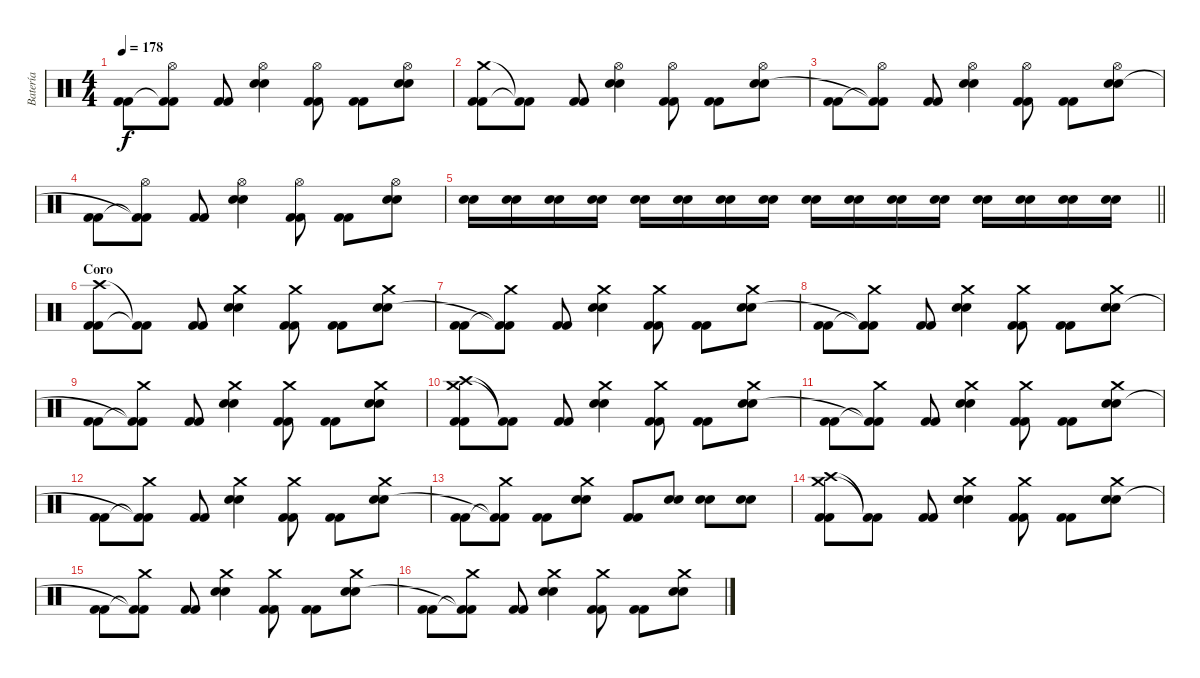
\track ("Batería" "Batería") {instrument percussion}
\staff {score}
\articulation defaults
\ts (4 4)
\tempo 178
\clef neutral
\ks c
("Kick (hit) 2" "Kick (hit) 2").8{dy f} ("Hi-Hat (open)" "Kick (hit) 2"{t} "Kick (hit) 2"{t}).8 ("Kick (hit) 2" "Kick (hit) 2").8 ("Hi-Hat (open)" "Electric Snare (hit)" "Electric Snare (hit)").4 ("Hi-Hat (open)" "Kick (hit) 2" "Kick (hit) 2").8 ("Kick (hit) 2" "Kick (hit) 2").8 ("Hi-Hat (open)" "Electric Snare (hit)" "Electric Snare (hit)").8 |
("Crash medium (hit)" "Kick (hit) 2" "Kick (hit) 2").8 ("Kick (hit) 2"{t} "Kick (hit) 2"{t}).8 ("Kick (hit) 2" "Kick (hit) 2").8 ("Hi-Hat (open)" "Electric Snare (hit)" "Electric Snare (hit)").4 ("Hi-Hat (open)" "Kick (hit) 2" "Kick (hit) 2").8 ("Kick (hit) 2" "Kick (hit) 2").8 ("Hi-Hat (open)" "Electric Snare (hit)" "Electric Snare (hit)").8 |
("Kick (hit) 2" "Kick (hit) 2").8 ("Hi-Hat (open)" "Kick (hit) 2"{t} "Kick (hit) 2"{t}).8 ("Kick (hit) 2" "Kick (hit) 2").8 ("Hi-Hat (open)" "Electric Snare (hit)" "Electric Snare (hit)").4 ("Hi-Hat (open)" "Kick (hit) 2" "Kick (hit) 2").8 ("Kick (hit) 2" "Kick (hit) 2").8 ("Hi-Hat (open)" "Electric Snare (hit)" "Electric Snare (hit)").8 |
("Kick (hit) 2" "Kick (hit) 2").8 ("Hi-Hat (open)" "Kick (hit) 2"{t} "Kick (hit) 2"{t}).8 ("Kick (hit) 2" "Kick (hit) 2").8 ("Hi-Hat (open)" "Electric Snare (hit)" "Electric Snare (hit)").4 ("Hi-Hat (open)" "Kick (hit) 2" "Kick (hit) 2").8 ("Kick (hit) 2" "Kick (hit) 2").8 ("Hi-Hat (open)" "Electric Snare (hit)" "Electric Snare (hit)").8 |
\barLineRight lightlight
("Electric Snare (hit)" "Electric Snare (hit)").16 ("Electric Snare (hit)" "Electric Snare (hit)").16 ("Electric Snare (hit)" "Electric Snare (hit)").16 ("Electric Snare (hit)" "Electric Snare (hit)").16 ("Electric Snare (hit)" "Electric Snare (hit)").16 ("Electric Snare (hit)" "Electric Snare (hit)").16 ("Electric Snare (hit)" "Electric Snare (hit)").16 ("Electric Snare (hit)" "Electric Snare (hit)").16 ("Electric Snare (hit)" "Electric Snare (hit)").16 ("Electric Snare (hit)" "Electric Snare (hit)").16 ("Electric Snare (hit)" "Electric Snare (hit)").16 ("Electric Snare (hit)" "Electric Snare (hit)").16 ("Electric Snare (hit)" "Electric Snare (hit)").16 ("Electric Snare (hit)" "Electric Snare (hit)").16 ("Electric Snare (hit)" "Electric Snare (hit)").16 ("Electric Snare (hit)" "Electric Snare (hit)").16 |
\section ("" "Coro")
("Crash high (hit)" "Kick (hit) 2" "Kick (hit) 2").8 ("Kick (hit) 2"{t} "Kick (hit) 2"{t}).8 ("Kick (hit) 2" "Kick (hit) 2").8 ("Crash medium (hit)" "Electric Snare (hit)" "Electric Snare (hit)").4 ("Crash medium (hit)" "Kick (hit) 2" "Kick (hit) 2").8 ("Kick (hit) 2" "Kick (hit) 2").8 ("Crash medium (hit)" "Electric Snare (hit)" "Electric Snare (hit)").8 |
("Kick (hit) 2" "Kick (hit) 2").8 ("Crash medium (hit)" "Kick (hit) 2"{t} "Kick (hit) 2"{t}).8 ("Kick (hit) 2" "Kick (hit) 2").8 ("Crash medium (hit)" "Electric Snare (hit)" "Electric Snare (hit)").4 ("Crash medium (hit)" "Kick (hit) 2" "Kick (hit) 2").8 ("Kick (hit) 2" "Kick (hit) 2").8 ("Crash medium (hit)" "Electric Snare (hit)" "Electric Snare (hit)").8 |
("Kick (hit) 2" "Kick (hit) 2").8 ("Crash medium (hit)" "Kick (hit) 2"{t} "Kick (hit) 2"{t}).8 ("Kick (hit) 2" "Kick (hit) 2").8 ("Crash medium (hit)" "Electric Snare (hit)" "Electric Snare (hit)").4 ("Crash medium (hit)" "Kick (hit) 2" "Kick (hit) 2").8 ("Kick (hit) 2" "Kick (hit) 2").8 ("Crash medium (hit)" "Electric Snare (hit)" "Electric Snare (hit)").8 |
("Kick (hit) 2" "Kick (hit) 2").8 ("Crash medium (hit)" "Kick (hit) 2"{t} "Kick (hit) 2"{t}).8 ("Kick (hit) 2" "Kick (hit) 2").8 ("Crash medium (hit)" "Electric Snare (hit)" "Electric Snare (hit)").4 ("Crash medium (hit)" "Kick (hit) 2" "Kick (hit) 2").8 ("Kick (hit) 2" "Kick (hit) 2").8 ("Crash medium (hit)" "Electric Snare (hit)" "Electric Snare (hit)").8 |
("Crash medium (hit)" "Crash high (hit)" "Kick (hit) 2" "Kick (hit) 2").8 ("Kick (hit) 2"{t} "Kick (hit) 2"{t}).8 ("Kick (hit) 2" "Kick (hit) 2").8 ("Crash medium (hit)" "Electric Snare (hit)" "Electric Snare (hit)").4 ("Crash medium (hit)" "Kick (hit) 2" "Kick (hit) 2").8 ("Kick (hit) 2" "Kick (hit) 2").8 ("Crash medium (hit)" "Electric Snare (hit)" "Electric Snare (hit)").8 |
("Kick (hit) 2" "Kick (hit) 2").8 ("Crash medium (hit)" "Kick (hit) 2"{t} "Kick (hit) 2"{t}).8 ("Kick (hit) 2" "Kick (hit) 2").8 ("Crash medium (hit)" "Electric Snare (hit)" "Electric Snare (hit)").4 ("Crash medium (hit)" "Kick (hit) 2" "Kick (hit) 2").8 ("Kick (hit) 2" "Kick (hit) 2").8 ("Crash medium (hit)" "Electric Snare (hit)" "Electric Snare (hit)").8 |
("Kick (hit) 2" "Kick (hit) 2").8 ("Crash medium (hit)" "Kick (hit) 2"{t} "Kick (hit) 2"{t}).8 ("Kick (hit) 2" "Kick (hit) 2").8 ("Crash medium (hit)" "Electric Snare (hit)" "Electric Snare (hit)").4 ("Crash medium (hit)" "Kick (hit) 2" "Kick (hit) 2").8 ("Kick (hit) 2" "Kick (hit) 2").8 ("Crash medium (hit)" "Electric Snare (hit)" "Electric Snare (hit)").8 |
("Kick (hit) 2" "Kick (hit) 2").8 ("Crash medium (hit)" "Kick (hit) 2"{t} "Kick (hit) 2"{t}).8 ("Kick (hit) 2" "Kick (hit) 2").8 ("Crash medium (hit)" "Electric Snare (hit)" "Electric Snare (hit)").8 ("Kick (hit) 2" "Kick (hit) 2").8 ("Electric Snare (hit)" "Electric Snare (hit)").8 ("Electric Snare (hit)" "Electric Snare (hit)").8 ("Electric Snare (hit)" "Electric Snare (hit)").8 |
("Crash medium (hit)" "Crash high (hit)" "Kick (hit) 2" "Kick (hit) 2").8 ("Kick (hit) 2"{t} "Kick (hit) 2"{t}).8 ("Kick (hit) 2" "Kick (hit) 2").8 ("Crash medium (hit)" "Electric Snare (hit)" "Electric Snare (hit)").4 ("Crash medium (hit)" "Kick (hit) 2" "Kick (hit) 2").8 ("Kick (hit) 2" "Kick (hit) 2").8 ("Crash medium (hit)" "Electric Snare (hit)" "Electric Snare (hit)").8 |
("Kick (hit) 2" "Kick (hit) 2").8 ("Crash medium (hit)" "Kick (hit) 2"{t} "Kick (hit) 2"{t}).8 ("Kick (hit) 2" "Kick (hit) 2").8 ("Crash medium (hit)" "Electric Snare (hit)" "Electric Snare (hit)").4 ("Crash medium (hit)" "Kick (hit) 2" "Kick (hit) 2").8 ("Kick (hit) 2" "Kick (hit) 2").8 ("Crash medium (hit)" "Electric Snare (hit)" "Electric Snare (hit)").8 |
("Kick (hit) 2" "Kick (hit) 2").8 ("Crash medium (hit)" "Kick (hit) 2"{t} "Kick (hit) 2"{t}).8 ("Kick (hit) 2" "Kick (hit) 2").8 ("Crash medium (hit)" "Electric Snare (hit)" "Electric Snare (hit)").4 ("Crash medium (hit)" "Kick (hit) 2" "Kick (hit) 2").8 ("Kick (hit) 2" "Kick (hit) 2").8 ("Crash medium (hit)" "Electric Snare (hit)" "Electric Snare (hit)").8
